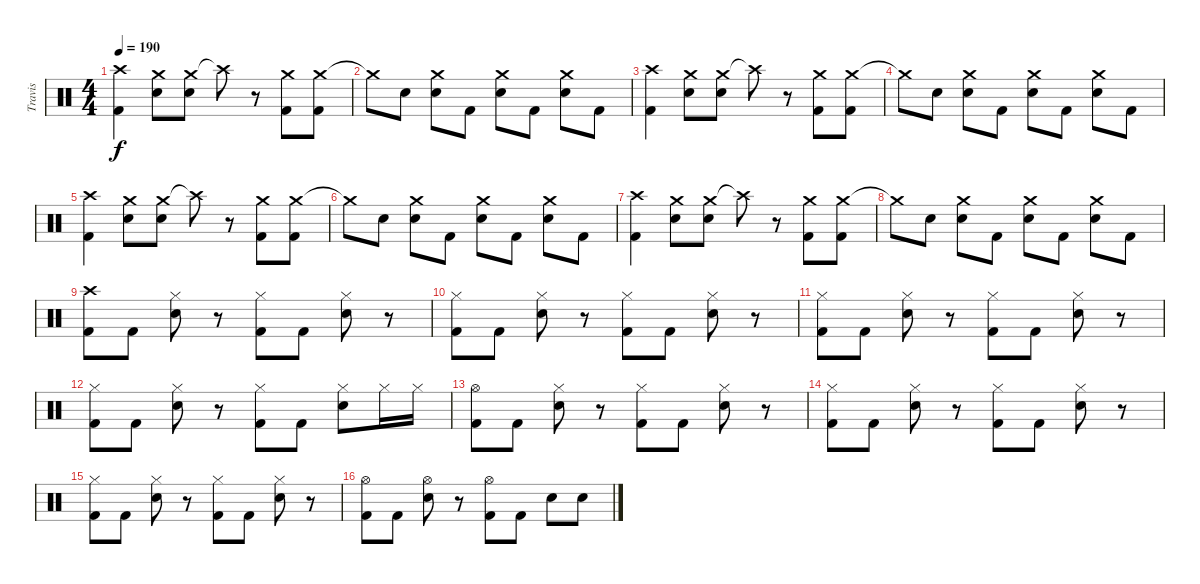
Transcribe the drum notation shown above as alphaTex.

\track ("Travis" "Travis") {instrument percussion}
\staff {score}
\articulation defaults
\ts (4 4)
\tempo 190
\clef neutral
\ks c
("Crash high (hit)" "Kick (hit) 2").4{dy f} ("Crash medium (hit)" "Electric Snare (hit)").8 ("Crash medium (hit)" "Electric Snare (hit)").8 "Crash high (hit)"{t}.8 r.8 ("Crash medium (hit)" "Kick (hit) 2").8 ("Crash medium (hit)" "Kick (hit) 2").8 |
"Crash medium (hit)"{t}.8 "Electric Snare (hit)".8 ("Crash medium (hit)" "Electric Snare (hit)").8 "Kick (hit) 2".8 ("Crash medium (hit)" "Electric Snare (hit)").8 "Kick (hit) 2".8 ("Crash medium (hit)" "Electric Snare (hit)").8 "Kick (hit) 2".8 |
("Crash high (hit)" "Kick (hit) 2").4 ("Crash medium (hit)" "Electric Snare (hit)").8 ("Crash medium (hit)" "Electric Snare (hit)").8 "Crash high (hit)"{t}.8 r.8 ("Crash medium (hit)" "Kick (hit) 2").8 ("Crash medium (hit)" "Kick (hit) 2").8 |
"Crash medium (hit)"{t}.8 "Electric Snare (hit)".8 ("Crash medium (hit)" "Electric Snare (hit)").8 "Kick (hit) 2".8 ("Crash medium (hit)" "Electric Snare (hit)").8 "Kick (hit) 2".8 ("Crash medium (hit)" "Electric Snare (hit)").8 "Kick (hit) 2".8 |
("Crash high (hit)" "Kick (hit) 2").4 ("Crash medium (hit)" "Electric Snare (hit)").8 ("Crash medium (hit)" "Electric Snare (hit)").8 "Crash high (hit)"{t}.8 r.8 ("Crash medium (hit)" "Kick (hit) 2").8 ("Crash medium (hit)" "Kick (hit) 2").8 |
"Crash medium (hit)"{t}.8 "Electric Snare (hit)".8 ("Crash medium (hit)" "Electric Snare (hit)").8 "Kick (hit) 2".8 ("Crash medium (hit)" "Electric Snare (hit)").8 "Kick (hit) 2".8 ("Crash medium (hit)" "Electric Snare (hit)").8 "Kick (hit) 2".8 |
("Crash high (hit)" "Kick (hit) 2").4 ("Crash medium (hit)" "Electric Snare (hit)").8 ("Crash medium (hit)" "Electric Snare (hit)").8 "Crash high (hit)"{t}.8 r.8 ("Crash medium (hit)" "Kick (hit) 2").8 ("Crash medium (hit)" "Kick (hit) 2").8 |
"Crash medium (hit)"{t}.8 "Electric Snare (hit)".8 ("Crash medium (hit)" "Electric Snare (hit)").8 "Kick (hit) 2".8 ("Crash medium (hit)" "Electric Snare (hit)").8 "Kick (hit) 2".8 ("Crash medium (hit)" "Electric Snare (hit)").8 "Kick (hit) 2".8 |
("Crash high (hit)" "Kick (hit) 2").8 "Kick (hit) 2".8 ("Hi-Hat (closed)" "Electric Snare (hit)").8 r.8 ("Hi-Hat (closed)" "Kick (hit) 2").8 "Kick (hit) 2".8 ("Hi-Hat (closed)" "Electric Snare (hit)").8 r.8 |
("Hi-Hat (closed)" "Kick (hit) 2").8 "Kick (hit) 2".8 ("Hi-Hat (closed)" "Electric Snare (hit)").8 r.8 ("Hi-Hat (closed)" "Kick (hit) 2").8 "Kick (hit) 2".8 ("Hi-Hat (closed)" "Electric Snare (hit)").8 r.8 |
("Hi-Hat (closed)" "Kick (hit) 2").8 "Kick (hit) 2".8 ("Hi-Hat (closed)" "Electric Snare (hit)").8 r.8 ("Hi-Hat (closed)" "Kick (hit) 2").8 "Kick (hit) 2".8 ("Hi-Hat (closed)" "Electric Snare (hit)").8 r.8 |
("Hi-Hat (closed)" "Kick (hit) 2").8 "Kick (hit) 2".8 ("Hi-Hat (closed)" "Electric Snare (hit)").8 r.8 ("Hi-Hat (closed)" "Kick (hit) 2").8 "Kick (hit) 2".8 ("Hi-Hat (closed)" "Electric Snare (hit)").8 "Hi-Hat (closed)".16 "Hi-Hat (closed)".16 |
("Hi-Hat (open)" "Kick (hit) 2").8 "Kick (hit) 2".8 ("Hi-Hat (closed)" "Electric Snare (hit)").8 r.8 ("Hi-Hat (closed)" "Kick (hit) 2").8 "Kick (hit) 2".8 ("Hi-Hat (closed)" "Electric Snare (hit)").8 r.8 |
("Hi-Hat (closed)" "Kick (hit) 2").8 "Kick (hit) 2".8 ("Hi-Hat (closed)" "Electric Snare (hit)").8 r.8 ("Hi-Hat (closed)" "Kick (hit) 2").8 "Kick (hit) 2".8 ("Hi-Hat (closed)" "Electric Snare (hit)").8 r.8 |
("Hi-Hat (closed)" "Kick (hit) 2").8 "Kick (hit) 2".8 ("Hi-Hat (closed)" "Electric Snare (hit)").8 r.8 ("Hi-Hat (closed)" "Kick (hit) 2").8 "Kick (hit) 2".8 ("Hi-Hat (closed)" "Electric Snare (hit)").8 r.8 |
("Hi-Hat (open)" "Kick (hit) 2").8 "Kick (hit) 2".8 ("Hi-Hat (open)" "Electric Snare (hit)").8 r.8 ("Hi-Hat (open)" "Kick (hit) 2").8 "Kick (hit) 2".8 "Electric Snare (hit)".8 "Electric Snare (hit)".8
